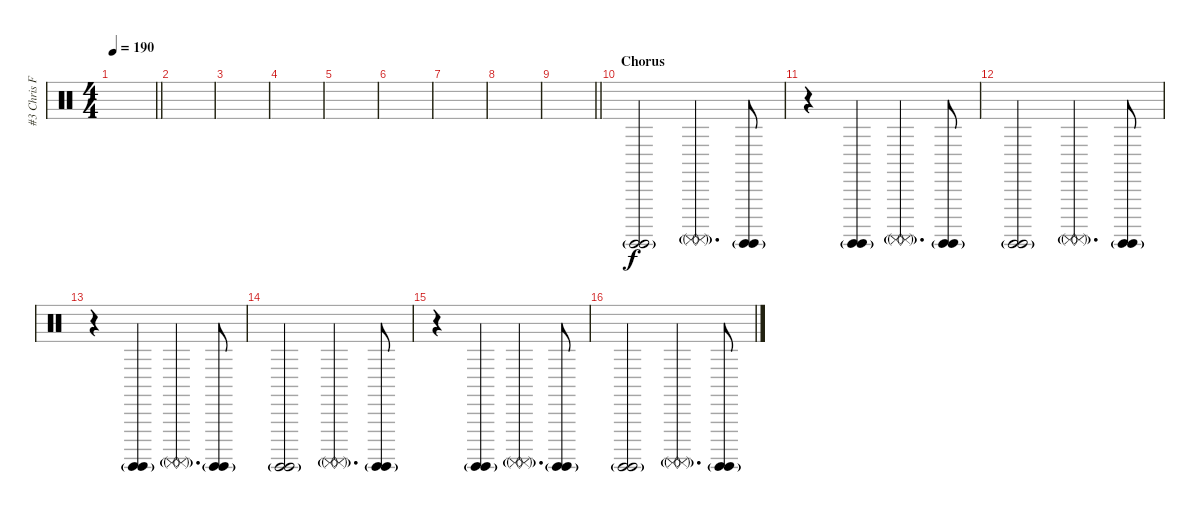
\track ("#3 Chris Fehn" "#3 Chris F") {instrument percussion}
\staff {score}
\articulation defaults
\ts (4 4)
\tempo 190
\clef neutral
\barLineRight lightlight
\ks c
|
|
|
|
|
|
|
|
\barLineRight lightlight
|
\section ("" "Chorus")
("Surdo (hit)"{g} "Surdo (hit)"{g}).2 ("Surdo (mute)"{g} "Surdo (mute)"{g}).4{d} ("Surdo (hit)"{g} "Surdo (hit)"{g}).8 |
r.4 ("Surdo (hit)"{g} "Surdo (hit)"{g}).4 ("Surdo (mute)"{g} "Surdo (mute)"{g}).4{d} ("Surdo (hit)"{g} "Surdo (hit)"{g}).8 |
("Surdo (hit)"{g} "Surdo (hit)"{g}).2 ("Surdo (mute)"{g} "Surdo (mute)"{g}).4{d} ("Surdo (hit)"{g} "Surdo (hit)"{g}).8 |
r.4 ("Surdo (hit)"{g} "Surdo (hit)"{g}).4 ("Surdo (mute)"{g} "Surdo (mute)"{g}).4{d} ("Surdo (hit)"{g} "Surdo (hit)"{g}).8 |
("Surdo (hit)"{g} "Surdo (hit)"{g}).2 ("Surdo (mute)"{g} "Surdo (mute)"{g}).4{d} ("Surdo (hit)"{g} "Surdo (hit)"{g}).8 |
r.4 ("Surdo (hit)"{g} "Surdo (hit)"{g}).4 ("Surdo (mute)"{g} "Surdo (mute)"{g}).4{d} ("Surdo (hit)"{g} "Surdo (hit)"{g}).8 |
("Surdo (hit)"{g} "Surdo (hit)"{g}).2 ("Surdo (mute)"{g} "Surdo (mute)"{g}).4{d} ("Surdo (hit)"{g} "Surdo (hit)"{g}).8
